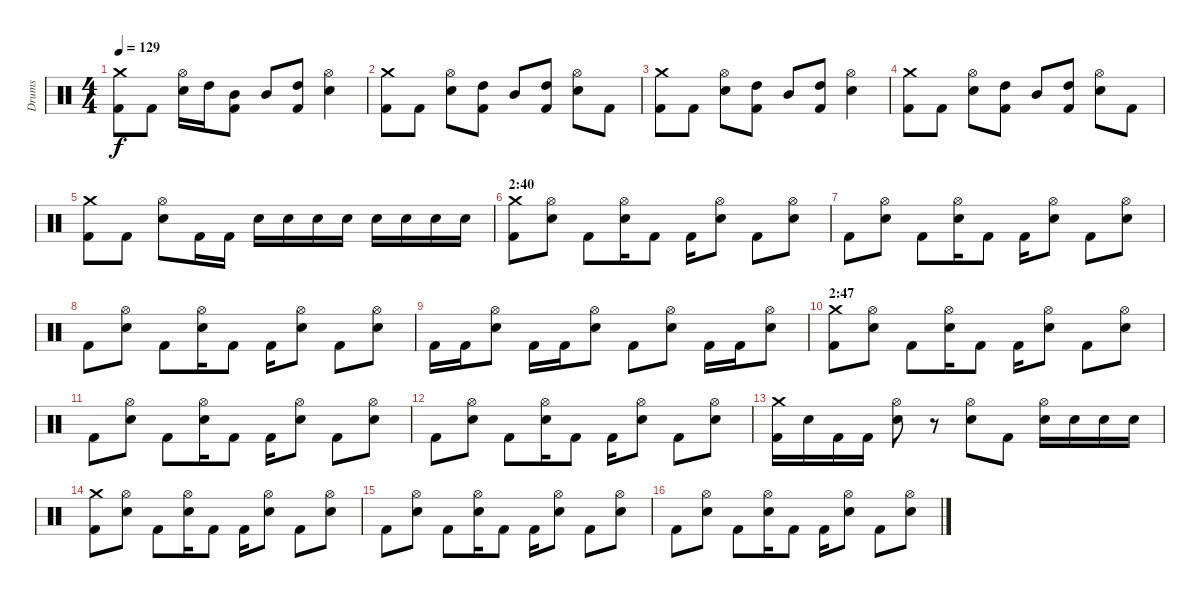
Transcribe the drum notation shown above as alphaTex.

\track ("Drums" "Drums") {instrument percussion}
\staff {score}
\articulation defaults
\ts (4 4)
\tempo 129
\clef neutral
\ks c
("Crash medium (hit)" "Kick (hit) 2").8{dy f} "Kick (hit) 2".8 ("Hi-Hat (open)" "Snare (hit) 2").16 "High Tom (hit)".16 ("Mid Tom (hit)" "Kick (hit) 2").8 "Mid Tom (hit)".8 ("High Tom (hit)" "Kick (hit) 2").8 ("Hi-Hat (open)" "Snare (hit) 2").4 |
("Crash medium (hit)" "Kick (hit) 2").8 "Kick (hit) 2".8 ("Hi-Hat (open)" "Snare (hit) 2").8 ("High Tom (hit)" "Kick (hit) 2").8 "Mid Tom (hit)".8 ("High Tom (hit)" "Kick (hit) 2").8 ("Hi-Hat (open)" "Snare (hit) 2").8 "Kick (hit) 2".8 |
("Crash medium (hit)" "Kick (hit) 2").8 "Kick (hit) 2".8 ("Hi-Hat (open)" "Snare (hit) 2").8 ("High Tom (hit)" "Kick (hit) 2").8 "Mid Tom (hit)".8 ("High Tom (hit)" "Kick (hit) 2").8 ("Hi-Hat (open)" "Snare (hit) 2").4 |
("Crash medium (hit)" "Kick (hit) 2").8 "Kick (hit) 2".8 ("Hi-Hat (open)" "Snare (hit) 2").8 ("High Tom (hit)" "Kick (hit) 2").8 "Mid Tom (hit)".8 ("High Tom (hit)" "Kick (hit) 2").8 ("Hi-Hat (open)" "Snare (hit) 2").8 "Kick (hit) 2".8 |
("Crash medium (hit)" "Kick (hit) 2").8 "Kick (hit) 2".8 ("Hi-Hat (open)" "Snare (hit) 2").8 "Kick (hit) 2".16 "Kick (hit) 2".16 "Snare (hit) 2".16 "Snare (hit) 2".16 "Snare (hit) 2".16 "Snare (hit) 2".16 "Snare (hit) 2".16 "Snare (hit) 2".16 "Snare (hit) 2".16 "Snare (hit) 2".16 |
\section ("" "2:40")
("Crash medium (hit)" "Kick (hit) 2").8 ("Hi-Hat (open)" "Snare (hit) 2").8 "Kick (hit) 2".8 ("Hi-Hat (open)" "Snare (hit) 2").16 "Kick (hit) 2".8 "Kick (hit) 2".16 ("Hi-Hat (open)" "Snare (hit) 2").8 "Kick (hit) 2".8 ("Hi-Hat (open)" "Snare (hit) 2").8 |
"Kick (hit) 2".8 ("Hi-Hat (open)" "Snare (hit) 2").8 "Kick (hit) 2".8 ("Hi-Hat (open)" "Snare (hit) 2").16 "Kick (hit) 2".8 "Kick (hit) 2".16 ("Hi-Hat (open)" "Snare (hit) 2").8 "Kick (hit) 2".8 ("Hi-Hat (open)" "Snare (hit) 2").8 |
"Kick (hit) 2".8 ("Hi-Hat (open)" "Snare (hit) 2").8 "Kick (hit) 2".8 ("Hi-Hat (open)" "Snare (hit) 2").16 "Kick (hit) 2".8 "Kick (hit) 2".16 ("Hi-Hat (open)" "Snare (hit) 2").8 "Kick (hit) 2".8 ("Hi-Hat (open)" "Snare (hit) 2").8 |
"Kick (hit) 2".16 "Kick (hit) 2".16 ("Hi-Hat (open)" "Snare (hit) 2").8 "Kick (hit) 2".16 "Kick (hit) 2".16 ("Hi-Hat (open)" "Snare (hit) 2").8 "Kick (hit) 2".8 ("Hi-Hat (open)" "Snare (hit) 2").8 "Kick (hit) 2".16 "Kick (hit) 2".16 ("Hi-Hat (open)" "Snare (hit) 2").8 |
\section ("" "2:47")
("Crash medium (hit)" "Kick (hit) 2").8 ("Hi-Hat (open)" "Snare (hit) 2").8 "Kick (hit) 2".8 ("Hi-Hat (open)" "Snare (hit) 2").16 "Kick (hit) 2".8 "Kick (hit) 2".16 ("Hi-Hat (open)" "Snare (hit) 2").8 "Kick (hit) 2".8 ("Hi-Hat (open)" "Snare (hit) 2").8 |
"Kick (hit) 2".8 ("Hi-Hat (open)" "Snare (hit) 2").8 "Kick (hit) 2".8 ("Hi-Hat (open)" "Snare (hit) 2").16 "Kick (hit) 2".8 "Kick (hit) 2".16 ("Hi-Hat (open)" "Snare (hit) 2").8 "Kick (hit) 2".8 ("Hi-Hat (open)" "Snare (hit) 2").8 |
"Kick (hit) 2".8 ("Hi-Hat (open)" "Snare (hit) 2").8 "Kick (hit) 2".8 ("Hi-Hat (open)" "Snare (hit) 2").16 "Kick (hit) 2".8 "Kick (hit) 2".16 ("Hi-Hat (open)" "Snare (hit) 2").8 "Kick (hit) 2".8 ("Hi-Hat (open)" "Snare (hit) 2").8 |
("Crash medium (hit)" "Kick (hit) 2").16 "Snare (hit) 2".16 "Kick (hit) 2".16 "Kick (hit) 2".16 ("Hi-Hat (open)" "Snare (hit) 2").8 r.8 ("Hi-Hat (open)" "Snare (hit) 2").8 "Kick (hit) 2".8 ("Hi-Hat (open)" "Snare (hit) 2").16 "Snare (hit) 2".16 "Snare (hit) 2".16 "Snare (hit) 2".16 |
("Crash medium (hit)" "Kick (hit) 2").8 ("Hi-Hat (open)" "Snare (hit) 2").8 "Kick (hit) 2".8 ("Hi-Hat (open)" "Snare (hit) 2").16 "Kick (hit) 2".8 "Kick (hit) 2".16 ("Hi-Hat (open)" "Snare (hit) 2").8 "Kick (hit) 2".8 ("Hi-Hat (open)" "Snare (hit) 2").8 |
"Kick (hit) 2".8 ("Hi-Hat (open)" "Snare (hit) 2").8 "Kick (hit) 2".8 ("Hi-Hat (open)" "Snare (hit) 2").16 "Kick (hit) 2".8 "Kick (hit) 2".16 ("Hi-Hat (open)" "Snare (hit) 2").8 "Kick (hit) 2".8 ("Hi-Hat (open)" "Snare (hit) 2").8 |
"Kick (hit) 2".8 ("Hi-Hat (open)" "Snare (hit) 2").8 "Kick (hit) 2".8 ("Hi-Hat (open)" "Snare (hit) 2").16 "Kick (hit) 2".8 "Kick (hit) 2".16 ("Hi-Hat (open)" "Snare (hit) 2").8 "Kick (hit) 2".8 ("Hi-Hat (open)" "Snare (hit) 2").8
